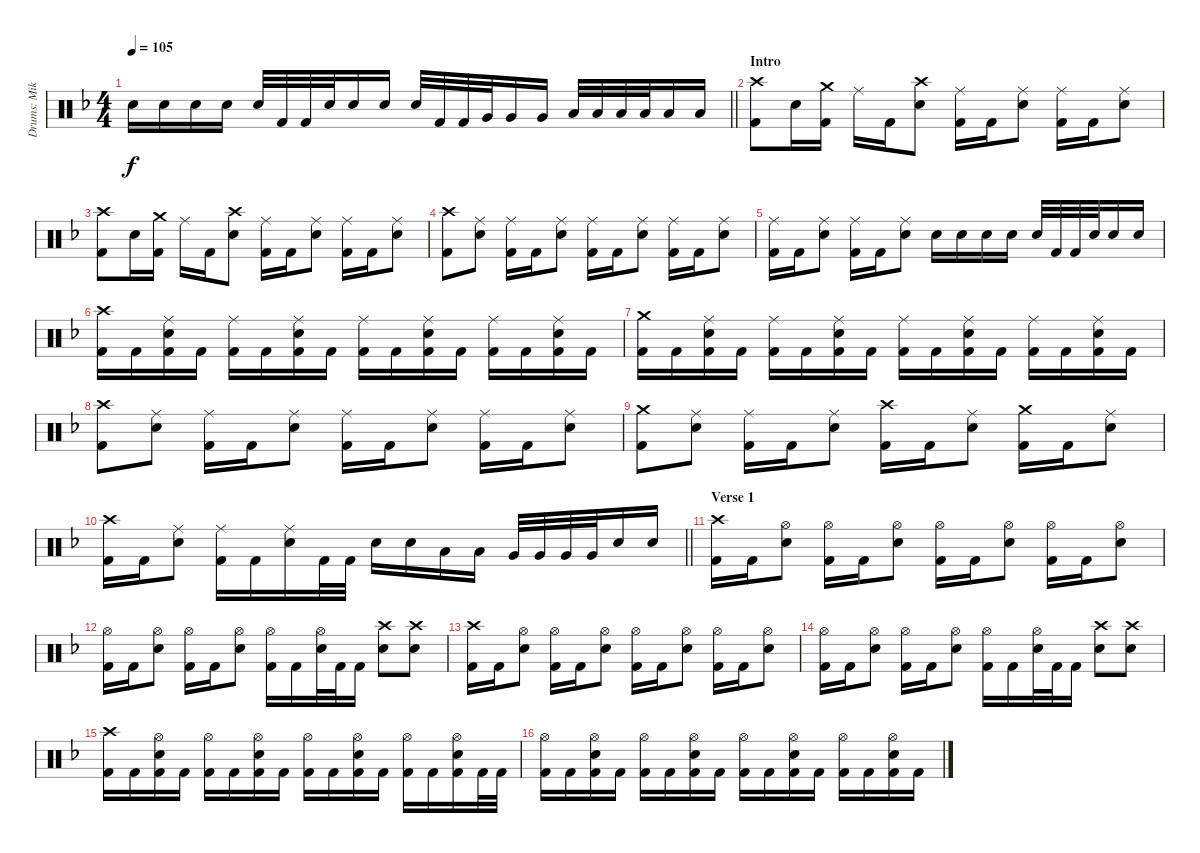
\track ("Drums: Mikko Korsbäck" "Drums: Mik") {instrument percussion}
\staff {score}
\articulation defaults
\ts (4 4)
\tempo 105
\clef neutral
\barLineRight lightlight
\ks dminor "Electric Snare (hit)".16{dy f} "Electric Snare (hit)".16 "Electric Snare (hit)".16 "Electric Snare (hit)".16 "Electric Snare (hit)".32 "Kick (hit) 2".32 "Kick (hit) 2".32 "Electric Snare (hit)".32 "Electric Snare (hit)".16 "Electric Snare (hit)".16 "Electric Snare (hit)".32 "Kick (hit) 2".32 "Kick (hit) 2".32 "Very Low Tom (hit)".32 "Very Low Tom (hit)".16 "Very Low Tom (hit)".16 "Low Tom (hit)".32 "Low Floor Tom (hit)".32 "Low Floor Tom (hit)".32 "Low Floor Tom (hit)".32 "Low Floor Tom (hit)".16 "Low Floor Tom (hit)".16
|
\section ("" "Intro")
("Crash high (hit)" "Kick (hit) 2").8 "Electric Snare (hit)".16 ("Crash medium (hit)" "Kick (hit) 2").16 "Ride (middle)".16 "Kick (hit) 2".16 ("Crash high (hit)" "Electric Snare (hit)").8 ("Ride (middle)" "Kick (hit) 2").16 "Kick (hit) 2".16 ("Ride (middle)" "Electric Snare (hit)").8 ("Ride (middle)" "Kick (hit) 2").16 "Kick (hit) 2".16 ("Ride (middle)" "Electric Snare (hit)").8 |
("Crash high (hit)" "Kick (hit) 2").8 "Electric Snare (hit)".16 ("Crash medium (hit)" "Kick (hit) 2").16 "Ride (middle)".16 "Kick (hit) 2".16 ("Crash high (hit)" "Electric Snare (hit)").8 ("Ride (middle)" "Kick (hit) 2").16 "Kick (hit) 2".16 ("Ride (middle)" "Electric Snare (hit)").8 ("Ride (middle)" "Kick (hit) 2").16 "Kick (hit) 2".16 ("Ride (middle)" "Electric Snare (hit)").8 |
("Crash high (hit)" "Kick (hit) 2").8 ("Ride (middle)" "Electric Snare (hit)").8 ("Ride (middle)" "Kick (hit) 2").16 "Kick (hit) 2".16 ("Ride (middle)" "Electric Snare (hit)").8 ("Ride (middle)" "Kick (hit) 2").16 "Kick (hit) 2".16 ("Ride (middle)" "Electric Snare (hit)").8 ("Ride (middle)" "Kick (hit) 2").16 "Kick (hit) 2".16 ("Ride (middle)" "Electric Snare (hit)").8 |
("Ride (middle)" "Kick (hit) 2").16 "Kick (hit) 2".16 ("Ride (middle)" "Electric Snare (hit)").8 ("Ride (middle)" "Kick (hit) 2").16 "Kick (hit) 2".16 ("Ride (middle)" "Electric Snare (hit)").8 "Electric Snare (hit)".16 "Electric Snare (hit)".16 "Electric Snare (hit)".16 "Electric Snare (hit)".16 "Electric Snare (hit)".32 "Kick (hit) 2".32 "Kick (hit) 2".32 "Electric Snare (hit)".32 "Electric Snare (hit)".16 "Electric Snare (hit)".16 |
("Crash high (hit)" "Kick (hit) 2").16 "Kick (hit) 2".16 ("Ride (middle)" "Electric Snare (hit)" "Kick (hit) 2").16 "Kick (hit) 2".16 ("Ride (middle)" "Kick (hit) 2").16 "Kick (hit) 2".16 ("Ride (middle)" "Electric Snare (hit)" "Kick (hit) 2").16 "Kick (hit) 2".16 ("Ride (middle)" "Kick (hit) 2").16 "Kick (hit) 2".16 ("Ride (middle)" "Electric Snare (hit)" "Kick (hit) 2").16 "Kick (hit) 2".16 ("Ride (middle)" "Kick (hit) 2").16 "Kick (hit) 2".16 ("Ride (middle)" "Electric Snare (hit)" "Kick (hit) 2").16 "Kick (hit) 2".16 |
("Crash medium (hit)" "Kick (hit) 2").16 "Kick (hit) 2".16 ("Ride (middle)" "Electric Snare (hit)" "Kick (hit) 2").16 "Kick (hit) 2".16 ("Ride (middle)" "Kick (hit) 2").16 "Kick (hit) 2".16 ("Ride (middle)" "Electric Snare (hit)" "Kick (hit) 2").16 "Kick (hit) 2".16 ("Ride (middle)" "Kick (hit) 2").16 "Kick (hit) 2".16 ("Ride (middle)" "Electric Snare (hit)" "Kick (hit) 2").16 "Kick (hit) 2".16 ("Ride (middle)" "Kick (hit) 2").16 "Kick (hit) 2".16 ("Ride (middle)" "Electric Snare (hit)" "Kick (hit) 2").16 "Kick (hit) 2".16 |
("Crash high (hit)" "Kick (hit) 2").8 ("Ride (middle)" "Electric Snare (hit)").8 ("Ride (middle)" "Kick (hit) 2").16 "Kick (hit) 2".16 ("Ride (middle)" "Electric Snare (hit)").8 ("Ride (middle)" "Kick (hit) 2").16 "Kick (hit) 2".16 ("Ride (middle)" "Electric Snare (hit)").8 ("Ride (middle)" "Kick (hit) 2").16 "Kick (hit) 2".16 ("Ride (middle)" "Electric Snare (hit)").8 |
("Crash medium (hit)" "Kick (hit) 2").8 ("Ride (middle)" "Electric Snare (hit)").8 ("Ride (middle)" "Kick (hit) 2").16 "Kick (hit) 2".16 ("Ride (middle)" "Electric Snare (hit)").8 ("Crash high (hit)" "Kick (hit) 2").16 "Kick (hit) 2".16 ("Ride (middle)" "Electric Snare (hit)").8 ("Crash medium (hit)" "Kick (hit) 2").16 "Kick (hit) 2".16 ("Ride (middle)" "Electric Snare (hit)").8 |
\barLineRight lightlight
("Crash high (hit)" "Kick (hit) 2").16 "Kick (hit) 2".16 ("Ride (middle)" "Electric Snare (hit)").8 ("Ride (middle)" "Kick (hit) 2").16 "Kick (hit) 2".16 ("Ride (middle)" "Electric Snare (hit)").16 "Kick (hit) 2".32 "Kick (hit) 2".32 "Electric Snare (hit)".16 "Electric Snare (hit)".16 "Low Tom (hit)".16 "Low Tom (hit)".16 "Very Low Tom (hit)".32 "Very Low Tom (hit)".32 "Very Low Tom (hit)".32 "Very Low Tom (hit)".32 "Electric Snare (hit)".16 "Electric Snare (hit)".16 |
\section ("" "Verse 1")
("Crash high (hit)" "Kick (hit) 2").16 "Kick (hit) 2".16 ("Hi-Hat (open)" "Electric Snare (hit)").8 ("Hi-Hat (open)" "Kick (hit) 2").16 "Kick (hit) 2".16 ("Hi-Hat (open)" "Electric Snare (hit)").8 ("Hi-Hat (open)" "Kick (hit) 2").16 "Kick (hit) 2".16 ("Hi-Hat (open)" "Electric Snare (hit)").8 ("Hi-Hat (open)" "Kick (hit) 2").16 "Kick (hit) 2".16 ("Hi-Hat (open)" "Electric Snare (hit)").8 |
("Hi-Hat (open)" "Kick (hit) 2").16 "Kick (hit) 2".16 ("Hi-Hat (open)" "Electric Snare (hit)").8 ("Hi-Hat (open)" "Kick (hit) 2").16 "Kick (hit) 2".16 ("Hi-Hat (open)" "Electric Snare (hit)").8 ("Hi-Hat (open)" "Kick (hit) 2").16 "Kick (hit) 2".16 ("Hi-Hat (open)" "Electric Snare (hit)").32 "Kick (hit) 2".32 "Kick (hit) 2".16 ("Crash high (hit)" "Electric Snare (hit)").8 ("Crash high (hit)" "Electric Snare (hit)").8 |
("Crash high (hit)" "Kick (hit) 2").16 "Kick (hit) 2".16 ("Hi-Hat (open)" "Electric Snare (hit)").8 ("Hi-Hat (open)" "Kick (hit) 2").16 "Kick (hit) 2".16 ("Hi-Hat (open)" "Electric Snare (hit)").8 ("Hi-Hat (open)" "Kick (hit) 2").16 "Kick (hit) 2".16 ("Hi-Hat (open)" "Electric Snare (hit)").8 ("Hi-Hat (open)" "Kick (hit) 2").16 "Kick (hit) 2".16 ("Hi-Hat (open)" "Electric Snare (hit)").8 |
("Hi-Hat (open)" "Kick (hit) 2").16 "Kick (hit) 2".16 ("Hi-Hat (open)" "Electric Snare (hit)").8 ("Hi-Hat (open)" "Kick (hit) 2").16 "Kick (hit) 2".16 ("Hi-Hat (open)" "Electric Snare (hit)").8 ("Hi-Hat (open)" "Kick (hit) 2").16 "Kick (hit) 2".16 ("Hi-Hat (open)" "Electric Snare (hit)").32 "Kick (hit) 2".32 "Kick (hit) 2".16 ("Crash high (hit)" "Electric Snare (hit)").8 ("Crash high (hit)" "Electric Snare (hit)").8 |
("Crash high (hit)" "Kick (hit) 2").16 "Kick (hit) 2".16 ("Hi-Hat (open)" "Electric Snare (hit)" "Kick (hit) 2").16 "Kick (hit) 2".16 ("Hi-Hat (open)" "Kick (hit) 2").16 "Kick (hit) 2".16 ("Hi-Hat (open)" "Electric Snare (hit)" "Kick (hit) 2").16 "Kick (hit) 2".16 ("Hi-Hat (open)" "Kick (hit) 2").16 "Kick (hit) 2".16 ("Hi-Hat (open)" "Electric Snare (hit)" "Kick (hit) 2").16 "Kick (hit) 2".16 ("Hi-Hat (open)" "Kick (hit) 2").16 "Kick (hit) 2".16 ("Hi-Hat (open)" "Electric Snare (hit)" "Kick (hit) 2").16 "Kick (hit) 2".32 "Kick (hit) 2".32 |
("Hi-Hat (open)" "Kick (hit) 2").16 "Kick (hit) 2".16 ("Hi-Hat (open)" "Electric Snare (hit)" "Kick (hit) 2").16 "Kick (hit) 2".16 ("Hi-Hat (open)" "Kick (hit) 2").16 "Kick (hit) 2".16 ("Hi-Hat (open)" "Electric Snare (hit)" "Kick (hit) 2").16 "Kick (hit) 2".16 ("Hi-Hat (open)" "Kick (hit) 2").16 "Kick (hit) 2".16 ("Hi-Hat (open)" "Electric Snare (hit)" "Kick (hit) 2").16 "Kick (hit) 2".16 ("Hi-Hat (open)" "Kick (hit) 2").16 "Kick (hit) 2".16 ("Hi-Hat (open)" "Electric Snare (hit)" "Kick (hit) 2").16 "Kick (hit) 2".16
